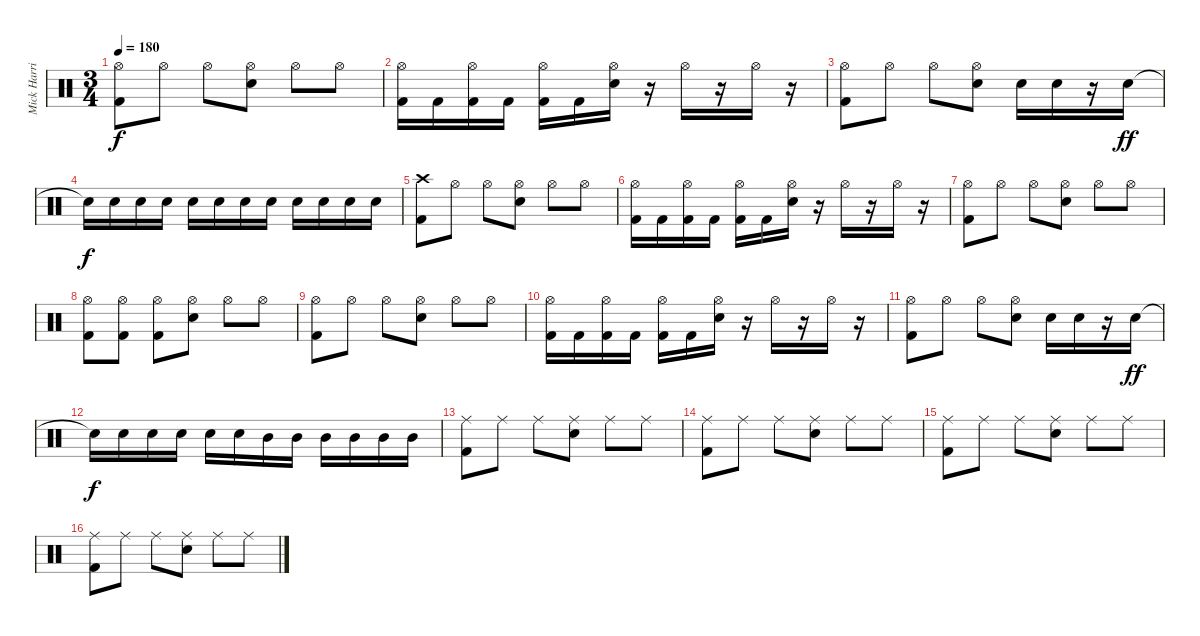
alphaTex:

\track ("Mick Harris (Drums)" "Mick Harri") {instrument percussion}
\staff {score}
\articulation defaults
\ts (3 4)
\tempo 180
\clef neutral
\ks c
("Kick (hit) 2" "Hi-Hat (open)").8{dy f} "Hi-Hat (open)".8 "Hi-Hat (open)".8 ("Electric Snare (hit)" "Hi-Hat (open)").8 "Hi-Hat (open)".8 "Hi-Hat (open)".8 |
("Kick (hit) 2" "Hi-Hat (open)").16 "Kick (hit) 2".16 ("Kick (hit) 2" "Hi-Hat (open)").16 "Kick (hit) 2".16 ("Kick (hit) 2" "Hi-Hat (open)").16 "Kick (hit) 2".16 ("Electric Snare (hit)" "Hi-Hat (open)").16 r.16 "Hi-Hat (open)".16 r.16 "Hi-Hat (open)".16 r.16 |
("Kick (hit) 2" "Hi-Hat (open)").8 "Hi-Hat (open)".8 "Hi-Hat (open)".8 ("Electric Snare (hit)" "Hi-Hat (open)").8 "Electric Snare (hit)".16 "Electric Snare (hit)".16 r.16 "Electric Snare (hit)".16{dy ff} |
"Electric Snare (hit)"{t}.16{dy f} "Electric Snare (hit)".16 "Electric Snare (hit)".16 "Electric Snare (hit)".16 "Electric Snare (hit)".16 "Electric Snare (hit)".16 "Electric Snare (hit)".16 "Electric Snare (hit)".16 "Electric Snare (hit)".16 "Electric Snare (hit)".16 "Electric Snare (hit)".16 "Electric Snare (hit)".16 |
("Kick (hit) 2" "Crash high (hit)").8 "Hi-Hat (open)".8 "Hi-Hat (open)".8 ("Electric Snare (hit)" "Hi-Hat (open)").8 "Hi-Hat (open)".8 "Hi-Hat (open)".8 |
("Kick (hit) 2" "Hi-Hat (open)").16 "Kick (hit) 2".16 ("Kick (hit) 2" "Hi-Hat (open)").16 "Kick (hit) 2".16 ("Kick (hit) 2" "Hi-Hat (open)").16 "Kick (hit) 2".16 ("Electric Snare (hit)" "Hi-Hat (open)").16 r.16 "Hi-Hat (open)".16 r.16 "Hi-Hat (open)".16 r.16 |
("Kick (hit) 2" "Hi-Hat (open)").8 "Hi-Hat (open)".8 "Hi-Hat (open)".8 ("Electric Snare (hit)" "Hi-Hat (open)").8 "Hi-Hat (open)".8 "Hi-Hat (open)".8 |
("Kick (hit) 2" "Hi-Hat (open)").8 ("Kick (hit) 2" "Hi-Hat (open)").8 ("Kick (hit) 2" "Hi-Hat (open)").8 ("Electric Snare (hit)" "Hi-Hat (open)").8 "Hi-Hat (open)".8 "Hi-Hat (open)".8 |
("Kick (hit) 2" "Hi-Hat (open)").8 "Hi-Hat (open)".8 "Hi-Hat (open)".8 ("Electric Snare (hit)" "Hi-Hat (open)").8 "Hi-Hat (open)".8 "Hi-Hat (open)".8 |
("Kick (hit) 2" "Hi-Hat (open)").16 "Kick (hit) 2".16 ("Kick (hit) 2" "Hi-Hat (open)").16 "Kick (hit) 2".16 ("Kick (hit) 2" "Hi-Hat (open)").16 "Kick (hit) 2".16 ("Electric Snare (hit)" "Hi-Hat (open)").16 r.16 "Hi-Hat (open)".16 r.16 "Hi-Hat (open)".16 r.16 |
("Kick (hit) 2" "Hi-Hat (open)").8 "Hi-Hat (open)".8 "Hi-Hat (open)".8 ("Electric Snare (hit)" "Hi-Hat (open)").8 "Electric Snare (hit)".16 "Electric Snare (hit)".16 r.16 "Electric Snare (hit)".16{dy ff} |
"Electric Snare (hit)"{t}.16{dy f} "Electric Snare (hit)".16 "Electric Snare (hit)".16 "Electric Snare (hit)".16 "Electric Snare (hit)".16 "Electric Snare (hit)".16 "Mid Tom (hit)".16 "Mid Tom (hit)".16 "Mid Tom (hit)".16 "Mid Tom (hit)".16 "Mid Tom (hit)".16 "Mid Tom (hit)".16 |
("Kick (hit) 2" "Ride (middle)").8 "Ride (middle)".8 "Ride (middle)".8 ("Electric Snare (hit)" "Ride (middle)").8 "Ride (middle)".8 "Ride (middle)".8 |
("Kick (hit) 2" "Ride (middle)").8 "Ride (middle)".8 "Ride (middle)".8 ("Electric Snare (hit)" "Ride (middle)").8 "Ride (middle)".8 "Ride (middle)".8 |
("Kick (hit) 2" "Ride (middle)").8 "Ride (middle)".8 "Ride (middle)".8 ("Electric Snare (hit)" "Ride (middle)").8 "Ride (middle)".8 "Ride (middle)".8 |
("Kick (hit) 2" "Ride (middle)").8 "Ride (middle)".8 "Ride (middle)".8 ("Electric Snare (hit)" "Ride (middle)").8 "Ride (middle)".8 "Ride (middle)".8
